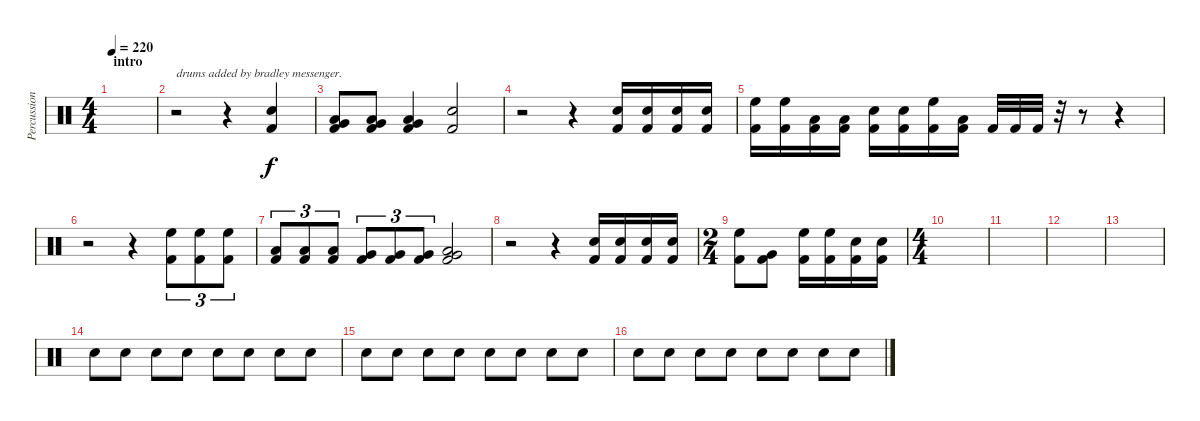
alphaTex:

\track ("Percussion" "Percussion") {instrument percussion}
\staff {score}
\articulation defaults
\ts (4 4)
\section ("" "intro")
\tempo 220
\clef neutral
\ks c
|
r.2{txt "drums added by bradley messenger."} r.4 ("Electric Snare (hit)" "Kick (hit) 2").4 |
("Very Low Tom (hit)" "Low Floor Tom (hit)" "Kick (hit) 2").8 ("Very Low Tom (hit)" "Low Floor Tom (hit)" "Kick (hit) 2").8 ("Very Low Tom (hit)" "Low Floor Tom (hit)" "Kick (hit) 2").4 ("Electric Snare (hit)" "Kick (hit) 2").2 |
r.2 r.4 ("Electric Snare (hit)" "Kick (hit) 2").16 ("Electric Snare (hit)" "Kick (hit) 2").16 ("Electric Snare (hit)" "Kick (hit) 2").16 ("Electric Snare (hit)" "Kick (hit) 2").16 |
("High Floor Tom (hit)" "Kick (hit) 2").16 ("High Floor Tom (hit)" "Kick (hit) 2").16 ("Low Tom (hit)" "Kick (hit) 2").16 ("Low Tom (hit)" "Kick (hit) 2").16 ("Electric Snare (hit)" "Kick (hit) 2").16 ("Electric Snare (hit)" "Kick (hit) 2").16 ("High Floor Tom (hit)" "Kick (hit) 2").16 ("Low Tom (hit)" "Kick (hit) 2").16 "Kick (hit) 2".32 "Kick (hit) 2".32 "Kick (hit) 2".32 r.32 r.8 r.4 |
r.2 r.4 ("High Floor Tom (hit)" "Kick (hit) 2").8{tu (3 2)} ("High Floor Tom (hit)" "Kick (hit) 2").8{tu (3 2)} ("High Floor Tom (hit)" "Kick (hit) 2").8{tu (3 2)} |
("Low Tom (hit)" "Kick (hit) 2").8{tu (3 2)} ("Low Tom (hit)" "Kick (hit) 2").8{tu (3 2)} ("Low Tom (hit)" "Kick (hit) 2").8{tu (3 2)} ("Very Low Tom (hit)" "Kick (hit) 2").8{tu (3 2)} ("Very Low Tom (hit)" "Kick (hit) 2").8{tu (3 2)} ("Very Low Tom (hit)" "Kick (hit) 2").8{tu (3 2)} ("Very Low Tom (hit)" "Low Floor Tom (hit)" "Kick (hit) 2").2 |
r.2 r.4 ("Electric Snare (hit)" "Kick (hit) 2").16 ("Electric Snare (hit)" "Kick (hit) 2").16 ("Electric Snare (hit)" "Kick (hit) 2").16 ("Electric Snare (hit)" "Kick (hit) 2").16 |
\ts (2 4)
("High Floor Tom (hit)" "Kick (hit) 2").8 ("Very Low Tom (hit)" "Kick (hit) 2").8 ("High Floor Tom (hit)" "Kick (hit) 2").16 ("High Floor Tom (hit)" "Kick (hit) 2").16 ("Electric Snare (hit)" "Kick (hit) 2").16 ("Electric Snare (hit)" "Kick (hit) 2").16 |
\ts (4 4)
\section ("" "")
|
|
|
|
"Electric Snare (hit)".8{volume 13} "Electric Snare (hit)".8 "Electric Snare (hit)".8 "Electric Snare (hit)".8 "Electric Snare (hit)".8 "Electric Snare (hit)".8 "Electric Snare (hit)".8 "Electric Snare (hit)".8 |
"Electric Snare (hit)".8 "Electric Snare (hit)".8 "Electric Snare (hit)".8 "Electric Snare (hit)".8 "Electric Snare (hit)".8 "Electric Snare (hit)".8 "Electric Snare (hit)".8 "Electric Snare (hit)".8 |
"Electric Snare (hit)".8 "Electric Snare (hit)".8 "Electric Snare (hit)".8 "Electric Snare (hit)".8 "Electric Snare (hit)".8 "Electric Snare (hit)".8 "Electric Snare (hit)".8 "Electric Snare (hit)".8
